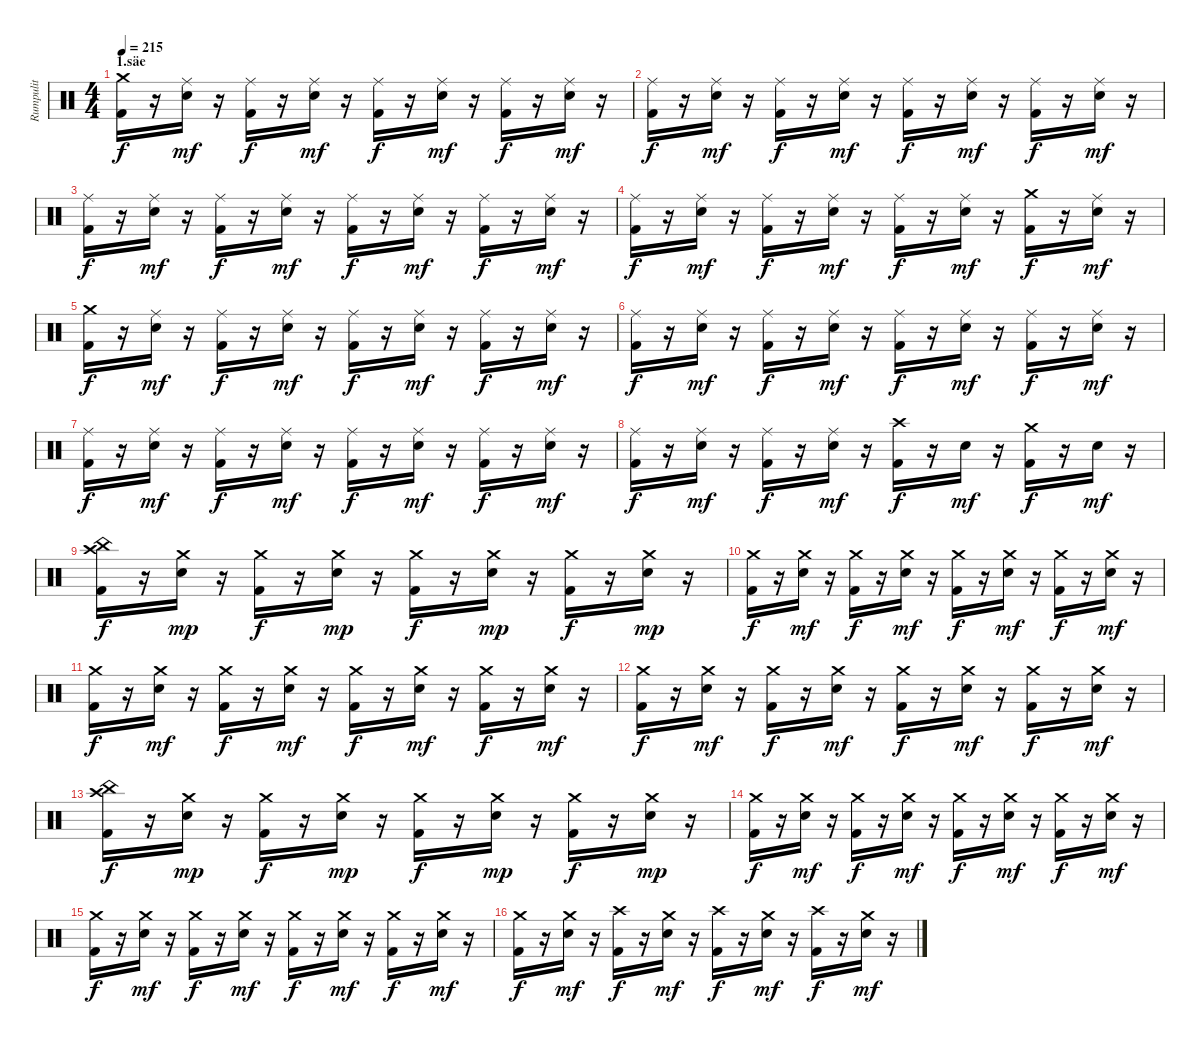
\track ("Rumpulit" "Rumpulit") {instrument percussion}
\staff {score}
\articulation defaults
\ts (4 4)
\section ("" "1.säe")
\tempo 215
\clef neutral
\ks c
("Crash medium (hit)" "Kick (hit) 2").16{dy f} r.16 ("Ride (middle)" "Electric Snare (hit)").16{dy mf} r.16 ("Ride (middle)" "Kick (hit) 2").16{dy f} r.16 ("Ride (middle)" "Electric Snare (hit)").16{dy mf} r.16 ("Ride (middle)" "Kick (hit) 2").16{dy f} r.16 ("Ride (middle)" "Electric Snare (hit)").16{dy mf} r.16 ("Ride (middle)" "Kick (hit) 2").16{dy f} r.16 ("Ride (middle)" "Electric Snare (hit)").16{dy mf} r.16 |
("Ride (middle)" "Kick (hit) 2").16{dy f} r.16 ("Ride (middle)" "Electric Snare (hit)").16{dy mf} r.16 ("Ride (middle)" "Kick (hit) 2").16{dy f} r.16 ("Ride (middle)" "Electric Snare (hit)").16{dy mf} r.16 ("Ride (middle)" "Kick (hit) 2").16{dy f} r.16 ("Ride (middle)" "Electric Snare (hit)").16{dy mf} r.16 ("Ride (middle)" "Kick (hit) 2").16{dy f} r.16 ("Ride (middle)" "Electric Snare (hit)").16{dy mf} r.16 |
("Ride (middle)" "Kick (hit) 2").16{dy f} r.16 ("Ride (middle)" "Electric Snare (hit)").16{dy mf} r.16 ("Ride (middle)" "Kick (hit) 2").16{dy f} r.16 ("Ride (middle)" "Electric Snare (hit)").16{dy mf} r.16 ("Ride (middle)" "Kick (hit) 2").16{dy f} r.16 ("Ride (middle)" "Electric Snare (hit)").16{dy mf} r.16 ("Ride (middle)" "Kick (hit) 2").16{dy f} r.16 ("Ride (middle)" "Electric Snare (hit)").16{dy mf} r.16 |
("Ride (middle)" "Kick (hit) 2").16{dy f} r.16 ("Ride (middle)" "Electric Snare (hit)").16{dy mf} r.16 ("Ride (middle)" "Kick (hit) 2").16{dy f} r.16 ("Ride (middle)" "Electric Snare (hit)").16{dy mf} r.16 ("Ride (middle)" "Kick (hit) 2").16{dy f} r.16 ("Ride (middle)" "Electric Snare (hit)").16{dy mf} r.16 ("Crash medium (hit)" "Kick (hit) 2").16{dy f} r.16 ("Ride (middle)" "Electric Snare (hit)").16{dy mf} r.16 |
("Crash medium (hit)" "Kick (hit) 2").16{dy f} r.16 ("Ride (middle)" "Electric Snare (hit)").16{dy mf} r.16 ("Ride (middle)" "Kick (hit) 2").16{dy f} r.16 ("Ride (middle)" "Electric Snare (hit)").16{dy mf} r.16 ("Ride (middle)" "Kick (hit) 2").16{dy f} r.16 ("Ride (middle)" "Electric Snare (hit)").16{dy mf} r.16 ("Ride (middle)" "Kick (hit) 2").16{dy f} r.16 ("Ride (middle)" "Electric Snare (hit)").16{dy mf} r.16 |
("Ride (middle)" "Kick (hit) 2").16{dy f} r.16 ("Ride (middle)" "Electric Snare (hit)").16{dy mf} r.16 ("Ride (middle)" "Kick (hit) 2").16{dy f} r.16 ("Ride (middle)" "Electric Snare (hit)").16{dy mf} r.16 ("Ride (middle)" "Kick (hit) 2").16{dy f} r.16 ("Ride (middle)" "Electric Snare (hit)").16{dy mf} r.16 ("Ride (middle)" "Kick (hit) 2").16{dy f} r.16 ("Ride (middle)" "Electric Snare (hit)").16{dy mf} r.16 |
("Ride (middle)" "Kick (hit) 2").16{dy f} r.16 ("Ride (middle)" "Electric Snare (hit)").16{dy mf} r.16 ("Ride (middle)" "Kick (hit) 2").16{dy f} r.16 ("Ride (middle)" "Electric Snare (hit)").16{dy mf} r.16 ("Ride (middle)" "Kick (hit) 2").16{dy f} r.16 ("Ride (middle)" "Electric Snare (hit)").16{dy mf} r.16 ("Ride (middle)" "Kick (hit) 2").16{dy f} r.16 ("Ride (middle)" "Electric Snare (hit)").16{dy mf} r.16 |
("Ride (middle)" "Kick (hit) 2").16{dy f} r.16 ("Ride (middle)" "Electric Snare (hit)").16{dy mf} r.16 ("Ride (middle)" "Kick (hit) 2").16{dy f} r.16 ("Ride (middle)" "Electric Snare (hit)").16{dy mf} r.16 ("Kick (hit) 2" "Crash high (hit)").16{dy f} r.16 "Electric Snare (hit)".16{dy mf} r.16 ("Kick (hit) 2" "Crash medium (hit)").16{dy f} r.16 "Electric Snare (hit)".16{dy mf} r.16 |
("Crash high (hit)" "Kick (hit) 2" "China (hit)").16{dy f} r.16 ("Crash medium (hit)" "Electric Snare (hit)").16{dy mp} r.16 ("Crash medium (hit)" "Kick (hit) 2").16{dy f} r.16 ("Crash medium (hit)" "Electric Snare (hit)").16{dy mp} r.16 ("Crash medium (hit)" "Kick (hit) 2").16{dy f} r.16 ("Crash medium (hit)" "Electric Snare (hit)").16{dy mp} r.16 ("Crash medium (hit)" "Kick (hit) 2").16{dy f} r.16 ("Crash medium (hit)" "Electric Snare (hit)").16{dy mp} r.16 |
("Crash medium (hit)" "Kick (hit) 2").16{dy f} r.16 ("Crash medium (hit)" "Electric Snare (hit)").16{dy mf} r.16 ("Crash medium (hit)" "Kick (hit) 2").16{dy f} r.16 ("Crash medium (hit)" "Electric Snare (hit)").16{dy mf} r.16 ("Crash medium (hit)" "Kick (hit) 2").16{dy f} r.16 ("Crash medium (hit)" "Electric Snare (hit)").16{dy mf} r.16 ("Crash medium (hit)" "Kick (hit) 2").16{dy f} r.16 ("Crash medium (hit)" "Electric Snare (hit)").16{dy mf} r.16 |
("Crash medium (hit)" "Kick (hit) 2").16{dy f} r.16 ("Crash medium (hit)" "Electric Snare (hit)").16{dy mf} r.16 ("Crash medium (hit)" "Kick (hit) 2").16{dy f} r.16 ("Crash medium (hit)" "Electric Snare (hit)").16{dy mf} r.16 ("Crash medium (hit)" "Kick (hit) 2").16{dy f} r.16 ("Crash medium (hit)" "Electric Snare (hit)").16{dy mf} r.16 ("Crash medium (hit)" "Kick (hit) 2").16{dy f} r.16 ("Crash medium (hit)" "Electric Snare (hit)").16{dy mf} r.16 |
("Crash medium (hit)" "Kick (hit) 2").16{dy f} r.16 ("Crash medium (hit)" "Electric Snare (hit)").16{dy mf} r.16 ("Crash medium (hit)" "Kick (hit) 2").16{dy f} r.16 ("Crash medium (hit)" "Electric Snare (hit)").16{dy mf} r.16 ("Crash medium (hit)" "Kick (hit) 2").16{dy f} r.16 ("Crash medium (hit)" "Electric Snare (hit)").16{dy mf} r.16 ("Crash medium (hit)" "Kick (hit) 2").16{dy f} r.16 ("Crash medium (hit)" "Electric Snare (hit)").16{dy mf} r.16 |
("Crash high (hit)" "Kick (hit) 2" "China (hit)").16{dy f} r.16 ("Crash medium (hit)" "Electric Snare (hit)").16{dy mp} r.16 ("Crash medium (hit)" "Kick (hit) 2").16{dy f} r.16 ("Crash medium (hit)" "Electric Snare (hit)").16{dy mp} r.16 ("Crash medium (hit)" "Kick (hit) 2").16{dy f} r.16 ("Crash medium (hit)" "Electric Snare (hit)").16{dy mp} r.16 ("Crash medium (hit)" "Kick (hit) 2").16{dy f} r.16 ("Crash medium (hit)" "Electric Snare (hit)").16{dy mp} r.16 |
("Crash medium (hit)" "Kick (hit) 2").16{dy f} r.16 ("Crash medium (hit)" "Electric Snare (hit)").16{dy mf} r.16 ("Crash medium (hit)" "Kick (hit) 2").16{dy f} r.16 ("Crash medium (hit)" "Electric Snare (hit)").16{dy mf} r.16 ("Crash medium (hit)" "Kick (hit) 2").16{dy f} r.16 ("Crash medium (hit)" "Electric Snare (hit)").16{dy mf} r.16 ("Crash medium (hit)" "Kick (hit) 2").16{dy f} r.16 ("Crash medium (hit)" "Electric Snare (hit)").16{dy mf} r.16 |
("Crash medium (hit)" "Kick (hit) 2").16{dy f} r.16 ("Crash medium (hit)" "Electric Snare (hit)").16{dy mf} r.16 ("Crash medium (hit)" "Kick (hit) 2").16{dy f} r.16 ("Crash medium (hit)" "Electric Snare (hit)").16{dy mf} r.16 ("Crash medium (hit)" "Kick (hit) 2").16{dy f} r.16 ("Crash medium (hit)" "Electric Snare (hit)").16{dy mf} r.16 ("Crash medium (hit)" "Kick (hit) 2").16{dy f} r.16 ("Crash medium (hit)" "Electric Snare (hit)").16{dy mf} r.16 |
("Crash medium (hit)" "Kick (hit) 2").16{dy f} r.16 ("Crash medium (hit)" "Electric Snare (hit)").16{dy mf} r.16 ("Crash high (hit)" "Kick (hit) 2").16{dy f} r.16 ("Crash medium (hit)" "Electric Snare (hit)").16{dy mf} r.16 ("Crash high (hit)" "Kick (hit) 2").16{dy f} r.16 ("Crash medium (hit)" "Electric Snare (hit)").16{dy mf} r.16 ("Crash high (hit)" "Kick (hit) 2").16{dy f} r.16 ("Crash medium (hit)" "Electric Snare (hit)").16{dy mf} r.16
